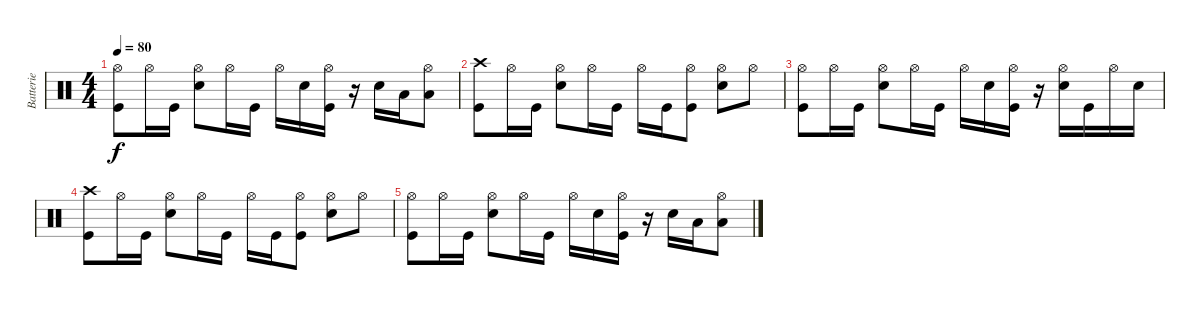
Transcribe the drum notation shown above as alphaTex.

\track ("Batterie" "Batterie") {instrument percussion}
\staff {score}
\articulation defaults
\ts (4 4)
\tempo 80
\clef neutral
\ks c
("Hi-Hat (open)" "Kick (hit)").8{dy f} "Hi-Hat (open)".16 "Kick (hit)".16 ("Hi-Hat (open)" "Electric Snare (hit)").8 "Hi-Hat (open)".16 "Kick (hit)".16 "Hi-Hat (open)".16 "Electric Snare (hit)".16 ("Hi-Hat (open)" "Kick (hit)").16 r.16 "Electric Snare (hit)".16 "Low Tom (hit)".16 ("Hi-Hat (open)" "Low Floor Tom (hit)").8 |
("Crash high (hit)" "Kick (hit)").8{volume 16} "Hi-Hat (open)".16 "Kick (hit)".16 ("Hi-Hat (open)" "Electric Snare (hit)").8 "Hi-Hat (open)".16 "Kick (hit)".16 "Hi-Hat (open)".16 "Kick (hit)".16 ("Hi-Hat (open)" "Kick (hit)").8 ("Hi-Hat (open)" "Electric Snare (hit)").8 "Hi-Hat (open)".8 |
("Hi-Hat (open)" "Kick (hit)").8{volume 10} "Hi-Hat (open)".16 "Kick (hit)".16 ("Hi-Hat (open)" "Electric Snare (hit)").8 "Hi-Hat (open)".16 "Kick (hit)".16 "Hi-Hat (open)".16 "Electric Snare (hit)".16 ("Hi-Hat (open)" "Kick (hit)").16 r.16 ("Hi-Hat (open)" "Electric Snare (hit)").16 "Kick (hit)".16 "Hi-Hat (open)".16 "Electric Snare (hit)".16 |
("Crash high (hit)" "Kick (hit)").8{volume 5} "Hi-Hat (open)".16 "Kick (hit)".16 ("Hi-Hat (open)" "Electric Snare (hit)").8 "Hi-Hat (open)".16 "Kick (hit)".16 "Hi-Hat (open)".16 "Kick (hit)".16 ("Hi-Hat (open)" "Kick (hit)").8 ("Hi-Hat (open)" "Electric Snare (hit)").8 "Hi-Hat (open)".8 |
("Hi-Hat (open)" "Kick (hit)").8{volume 0} "Hi-Hat (open)".16 "Kick (hit)".16 ("Hi-Hat (open)" "Electric Snare (hit)").8 "Hi-Hat (open)".16 "Kick (hit)".16 "Hi-Hat (open)".16 "Electric Snare (hit)".16 ("Hi-Hat (open)" "Kick (hit)").16 r.16 "Electric Snare (hit)".16 "Low Tom (hit)".16 ("Hi-Hat (open)" "Low Floor Tom (hit)").8
